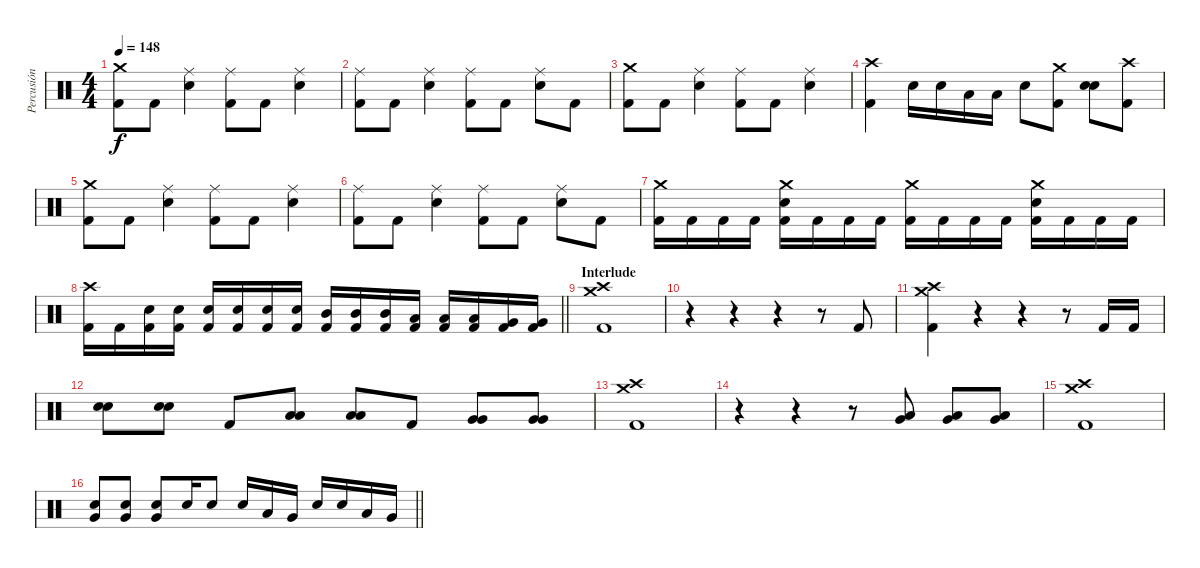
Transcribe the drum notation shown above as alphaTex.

\track ("Percusión" "Percusión") {instrument percussion}
\staff {score}
\articulation defaults
\ts (4 4)
\tempo 148
\clef neutral
\ks c
("Crash medium (hit)" "Kick (hit) 2").8{dy f} "Kick (hit) 2".8 ("Ride (middle)" "Electric Snare (hit)").4 ("Ride (middle)" "Kick (hit) 2").8 "Kick (hit) 2".8 ("Ride (middle)" "Electric Snare (hit)").4 |
("Ride (middle)" "Kick (hit) 2").8 "Kick (hit) 2".8 ("Ride (middle)" "Electric Snare (hit)").4 ("Ride (middle)" "Kick (hit) 2").8 "Kick (hit) 2".8 ("Ride (middle)" "Electric Snare (hit)").8 "Kick (hit) 2".8 |
("Crash medium (hit)" "Kick (hit) 2").8 "Kick (hit) 2".8 ("Ride (middle)" "Electric Snare (hit)").4 ("Ride (middle)" "Kick (hit) 2").8 "Kick (hit) 2".8 ("Ride (middle)" "Electric Snare (hit)").4 |
("Crash high (hit)" "Kick (hit) 2").4 "Electric Snare (hit)".16 "Electric Snare (hit)".16 "Low Tom (hit)".16 "Low Tom (hit)".16 "Electric Snare (hit)".8 ("Crash medium (hit)" "Kick (hit) 2").8 ("Electric Snare (hit)" "Electric Snare (hit)").8{bd 120} ("Crash high (hit)" "Kick (hit) 2").8 |
("Crash medium (hit)" "Kick (hit) 2").8 "Kick (hit) 2".8 ("Ride (middle)" "Electric Snare (hit)").4 ("Ride (middle)" "Kick (hit) 2").8 "Kick (hit) 2".8 ("Ride (middle)" "Electric Snare (hit)").4 |
("Ride (middle)" "Kick (hit) 2").8 "Kick (hit) 2".8 ("Ride (middle)" "Electric Snare (hit)").4 ("Ride (middle)" "Kick (hit) 2").8 "Kick (hit) 2".8 ("Ride (middle)" "Electric Snare (hit)").8 "Kick (hit) 2".8 |
("Crash medium (hit)" "Kick (hit) 2").16 "Kick (hit) 2".16 "Kick (hit) 2".16 "Kick (hit) 2".16 ("Crash medium (hit)" "Electric Snare (hit)" "Kick (hit) 2").16 "Kick (hit) 2".16 "Kick (hit) 2".16 "Kick (hit) 2".16 ("Crash medium (hit)" "Kick (hit) 2").16 "Kick (hit) 2".16 "Kick (hit) 2".16 "Kick (hit) 2".16 ("Crash medium (hit)" "Electric Snare (hit)" "Kick (hit) 2").16 "Kick (hit) 2".16 "Kick (hit) 2".16 "Kick (hit) 2".16 |
\barLineRight lightlight
("Crash high (hit)" "Kick (hit) 2").16 "Kick (hit) 2".16 ("Electric Snare (hit)" "Kick (hit) 2").16 ("Electric Snare (hit)" "Kick (hit) 2").16 ("Electric Snare (hit)" "Kick (hit) 2").16 ("Electric Snare (hit)" "Kick (hit) 2").16 ("Electric Snare (hit)" "Kick (hit) 2").16 ("Electric Snare (hit)" "Kick (hit) 2").16 ("Mid Tom (hit)" "Kick (hit) 2").16 ("Mid Tom (hit)" "Kick (hit) 2").16 ("Mid Tom (hit)" "Kick (hit) 2").16 ("Low Tom (hit)" "Kick (hit) 2").16 ("Low Tom (hit)" "Kick (hit) 2").16 ("Low Tom (hit)" "Kick (hit) 2").16 ("Very Low Tom (hit)" "Kick (hit) 2").16 ("Very Low Tom (hit)" "Kick (hit) 2").16 |
\section ("" "Interlude")
("Crash high (hit)" "Crash medium (hit)" "Kick (hit) 2").1 |
r.4 r.4 r.4 r.8 "Kick (hit) 2".8 |
("Crash high (hit)" "Crash medium (hit)" "Kick (hit) 2").4 r.4 r.4 r.8 "Kick (hit) 2".16 "Kick (hit) 2".16 |
("Electric Snare (hit)" "Electric Snare (hit)").8{bd 60} ("Electric Snare (hit)" "Electric Snare (hit)").8{bd 60} "Kick (hit) 2".8 ("Low Tom (hit)" "Low Tom (hit)").8{bd 60} ("Low Tom (hit)" "Low Tom (hit)").8{bd 60} "Kick (hit) 2".8 ("Very Low Tom (hit)" "Very Low Tom (hit)").8{bd 60} ("Very Low Tom (hit)" "Very Low Tom (hit)").8{bd 60} |
("Crash high (hit)" "Crash medium (hit)" "Kick (hit) 2").1 |
r.4 r.4 r.8 ("Very Low Tom (hit)" "Low Tom (hit)").8{bd 60} ("Very Low Tom (hit)" "Low Tom (hit)").8{bd 60} ("Very Low Tom (hit)" "Low Tom (hit)").8{bd 60} |
("Crash high (hit)" "Crash medium (hit)" "Kick (hit) 2").1 |
\barLineRight lightlight
("Very Low Tom (hit)" "Electric Snare (hit)").8 ("Very Low Tom (hit)" "Electric Snare (hit)").8 ("Very Low Tom (hit)" "Electric Snare (hit)").8 "Electric Snare (hit)".16 "Electric Snare (hit)".8 "Electric Snare (hit)".16 "Low Tom (hit)".16 "Very Low Tom (hit)".16 "Electric Snare (hit)".16 "Electric Snare (hit)".16 "Low Tom (hit)".16 "Very Low Tom (hit)".16
